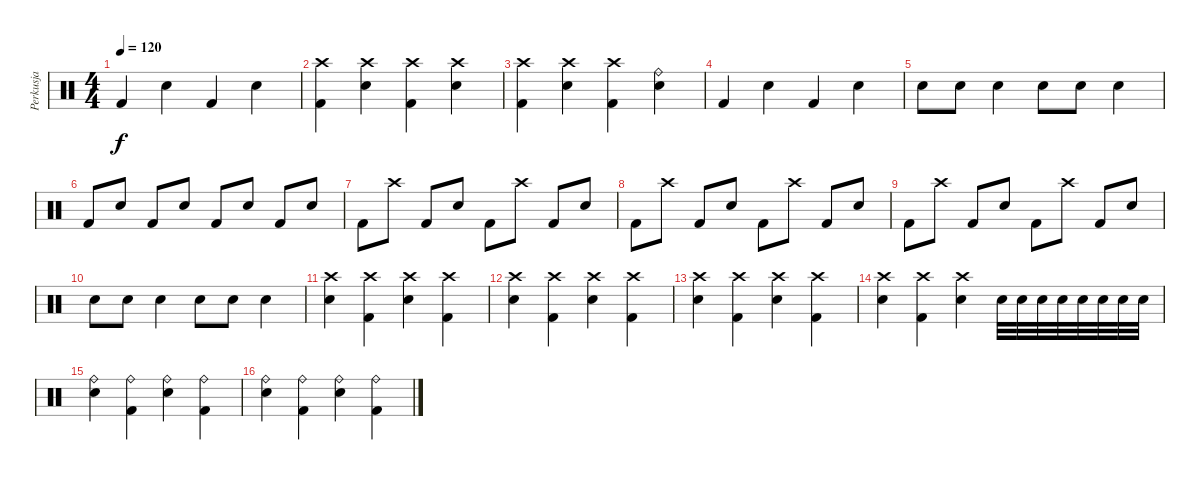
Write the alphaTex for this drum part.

\track ("Perkusja" "Perkusja") {instrument percussion}
\staff {score}
\articulation defaults
\ts (4 4)
\tempo 120
\clef neutral
\ks c "Kick (hit) 2".4{dy f} "Snare (hit) 2".4 "Kick (hit) 2".4 "Snare (hit) 2".4
|
("Crash high (hit)" "Kick (hit) 2").4 ("Snare (hit) 2" "Crash high (hit)").4 ("Crash high (hit)" "Kick (hit) 2").4 ("Snare (hit) 2" "Crash high (hit)").4 |
("Crash high (hit)" "Kick (hit) 2").4 ("Snare (hit) 2" "Crash high (hit)").4 ("Crash high (hit)" "Kick (hit) 2").4 ("Ride (bell)" "Snare (hit) 2").4 |
"Kick (hit) 2".4 "Snare (hit) 2".4 "Kick (hit) 2".4 "Snare (hit) 2".4 |
"Snare (hit) 2".8 "Snare (hit) 2".8 "Snare (hit) 2".4 "Snare (hit) 2".8 "Snare (hit) 2".8 "Snare (hit) 2".4 |
"Kick (hit) 2".8 "Snare (hit) 2".8 "Kick (hit) 2".8 "Snare (hit) 2".8 "Kick (hit) 2".8 "Snare (hit) 2".8 "Kick (hit) 2".8 "Snare (hit) 2".8 |
"Kick (hit) 2".8 "Crash high (hit)".8 "Kick (hit) 2".8 "Snare (hit) 2".8 "Kick (hit) 2".8 "Crash high (hit)".8 "Kick (hit) 2".8 "Snare (hit) 2".8 |
"Kick (hit) 2".8 "Crash high (hit)".8 "Kick (hit) 2".8 "Snare (hit) 2".8 "Kick (hit) 2".8 "Crash high (hit)".8 "Kick (hit) 2".8 "Snare (hit) 2".8 |
"Kick (hit) 2".8 "Crash high (hit)".8 "Kick (hit) 2".8 "Snare (hit) 2".8 "Kick (hit) 2".8 "Crash high (hit)".8 "Kick (hit) 2".8 "Snare (hit) 2".8 |
"Snare (hit) 2".8 "Snare (hit) 2".8 "Snare (hit) 2".4 "Snare (hit) 2".8 "Snare (hit) 2".8 "Snare (hit) 2".4 |
("Crash high (hit)" "Snare (hit) 2").4 ("Crash high (hit)" "Kick (hit) 2").4 ("Crash high (hit)" "Snare (hit) 2").4 ("Crash high (hit)" "Kick (hit) 2").4 |
("Crash high (hit)" "Snare (hit) 2").4 ("Crash high (hit)" "Kick (hit) 2").4 ("Crash high (hit)" "Snare (hit) 2").4 ("Crash high (hit)" "Kick (hit) 2").4 |
("Crash high (hit)" "Snare (hit) 2").4 ("Crash high (hit)" "Kick (hit) 2").4 ("Crash high (hit)" "Snare (hit) 2").4 ("Crash high (hit)" "Kick (hit) 2").4 |
("Crash high (hit)" "Snare (hit) 2").4 ("Crash high (hit)" "Kick (hit) 2").4 ("Crash high (hit)" "Snare (hit) 2").4 "Snare (hit) 2".32 "Snare (hit) 2".32 "Snare (hit) 2".32 "Snare (hit) 2".32 "Snare (hit) 2".32 "Snare (hit) 2".32 "Snare (hit) 2".32 "Snare (hit) 2".32 |
("Ride (bell)" "Snare (hit) 2").4 ("Ride (bell)" "Kick (hit) 2").4 ("Ride (bell)" "Snare (hit) 2").4 ("Ride (bell)" "Kick (hit) 2").4 |
("Ride (bell)" "Snare (hit) 2").4 ("Ride (bell)" "Kick (hit) 2").4 ("Ride (bell)" "Snare (hit) 2").4 ("Ride (bell)" "Kick (hit) 2").4
